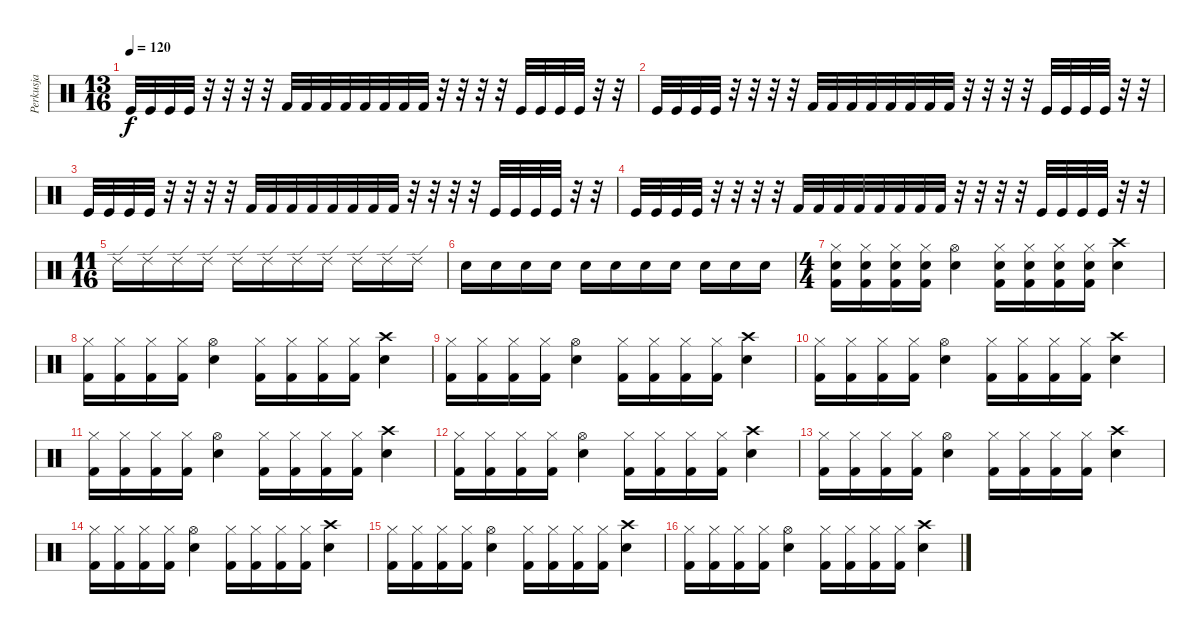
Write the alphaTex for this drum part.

\track ("Perkusja" "Perkusja") {instrument percussion}
\staff {score}
\articulation defaults
\ts (13 16)
\tempo 120
\clef neutral
\ks c "Kick (hit)".32{dy f} "Kick (hit)".32 "Kick (hit)".32 "Kick (hit)".32
r.32 r.32 r.32 r.32 "Kick (hit) 2".32 "Kick (hit) 2".32 "Kick (hit) 2".32 "Kick (hit) 2".32 "Kick (hit) 2".32 "Kick (hit) 2".32 "Kick (hit) 2".32 "Kick (hit) 2".32 r.32 r.32 r.32 r.32 "Kick (hit)".32 "Kick (hit)".32 "Kick (hit)".32 "Kick (hit)".32 r.32 r.32 |
"Kick (hit)".32 "Kick (hit)".32 "Kick (hit)".32 "Kick (hit)".32 r.32 r.32 r.32 r.32 "Kick (hit) 2".32 "Kick (hit) 2".32 "Kick (hit) 2".32 "Kick (hit) 2".32 "Kick (hit) 2".32 "Kick (hit) 2".32 "Kick (hit) 2".32 "Kick (hit) 2".32 r.32 r.32 r.32 r.32 "Kick (hit)".32 "Kick (hit)".32 "Kick (hit)".32 "Kick (hit)".32 r.32 r.32 |
"Kick (hit)".32 "Kick (hit)".32 "Kick (hit)".32 "Kick (hit)".32 r.32 r.32 r.32 r.32 "Kick (hit) 2".32 "Kick (hit) 2".32 "Kick (hit) 2".32 "Kick (hit) 2".32 "Kick (hit) 2".32 "Kick (hit) 2".32 "Kick (hit) 2".32 "Kick (hit) 2".32 r.32 r.32 r.32 r.32 "Kick (hit)".32 "Kick (hit)".32 "Kick (hit)".32 "Kick (hit)".32 r.32 r.32 |
"Kick (hit)".32 "Kick (hit)".32 "Kick (hit)".32 "Kick (hit)".32 r.32 r.32 r.32 r.32 "Kick (hit) 2".32 "Kick (hit) 2".32 "Kick (hit) 2".32 "Kick (hit) 2".32 "Kick (hit) 2".32 "Kick (hit) 2".32 "Kick (hit) 2".32 "Kick (hit) 2".32 r.32 r.32 r.32 r.32 "Kick (hit)".32 "Kick (hit)".32 "Kick (hit)".32 "Kick (hit)".32 r.32 r.32 |
\ts (11 16)
"Ride (edge) 2".16 "Ride (edge) 2".16 "Ride (edge) 2".16 "Ride (edge) 2".16 "Ride (edge) 2".16 "Ride (edge) 2".16 "Ride (edge) 2".16 "Ride (edge) 2".16 "Ride (edge) 2".16 "Ride (edge) 2".16 "Ride (edge) 2".16 |
"Electric Snare (hit)".16 "Electric Snare (hit)".16 "Electric Snare (hit)".16 "Electric Snare (hit)".16 "Electric Snare (hit)".16 "Electric Snare (hit)".16 "Electric Snare (hit)".16 "Electric Snare (hit)".16 "Electric Snare (hit)".16 "Electric Snare (hit)".16 "Electric Snare (hit)".16 |
\ts (4 4)
("Hi-Hat (closed)" "Electric Snare (hit)" "Kick (hit) 2").16 ("Hi-Hat (closed)" "Electric Snare (hit)" "Kick (hit) 2").16 ("Hi-Hat (closed)" "Electric Snare (hit)" "Kick (hit) 2").16 ("Hi-Hat (closed)" "Electric Snare (hit)" "Kick (hit) 2").16 ("Hi-Hat (open)" "Electric Snare (hit)").4 ("Hi-Hat (closed)" "Electric Snare (hit)" "Kick (hit) 2").16 ("Hi-Hat (closed)" "Electric Snare (hit)" "Kick (hit) 2").16 ("Hi-Hat (closed)" "Electric Snare (hit)" "Kick (hit) 2").16 ("Hi-Hat (closed)" "Electric Snare (hit)" "Kick (hit) 2").16 ("Crash high (hit)" "Electric Snare (hit)").4 |
("Hi-Hat (closed)" "Kick (hit) 2").16 ("Hi-Hat (closed)" "Kick (hit) 2").16 ("Hi-Hat (closed)" "Kick (hit) 2").16 ("Hi-Hat (closed)" "Kick (hit) 2").16 ("Hi-Hat (open)" "Electric Snare (hit)").4 ("Hi-Hat (closed)" "Kick (hit) 2").16 ("Hi-Hat (closed)" "Kick (hit) 2").16 ("Hi-Hat (closed)" "Kick (hit) 2").16 ("Hi-Hat (closed)" "Kick (hit) 2").16 ("Crash high (hit)" "Electric Snare (hit)").4 |
("Hi-Hat (closed)" "Kick (hit) 2").16 ("Hi-Hat (closed)" "Kick (hit) 2").16 ("Hi-Hat (closed)" "Kick (hit) 2").16 ("Hi-Hat (closed)" "Kick (hit) 2").16 ("Hi-Hat (open)" "Electric Snare (hit)").4 ("Hi-Hat (closed)" "Kick (hit) 2").16 ("Hi-Hat (closed)" "Kick (hit) 2").16 ("Hi-Hat (closed)" "Kick (hit) 2").16 ("Hi-Hat (closed)" "Kick (hit) 2").16 ("Crash high (hit)" "Electric Snare (hit)").4 |
("Hi-Hat (closed)" "Kick (hit) 2").16 ("Hi-Hat (closed)" "Kick (hit) 2").16 ("Hi-Hat (closed)" "Kick (hit) 2").16 ("Hi-Hat (closed)" "Kick (hit) 2").16 ("Hi-Hat (open)" "Electric Snare (hit)").4 ("Hi-Hat (closed)" "Kick (hit) 2").16 ("Hi-Hat (closed)" "Kick (hit) 2").16 ("Hi-Hat (closed)" "Kick (hit) 2").16 ("Hi-Hat (closed)" "Kick (hit) 2").16 ("Crash high (hit)" "Electric Snare (hit)").4 |
("Hi-Hat (closed)" "Kick (hit) 2").16 ("Hi-Hat (closed)" "Kick (hit) 2").16 ("Hi-Hat (closed)" "Kick (hit) 2").16 ("Hi-Hat (closed)" "Kick (hit) 2").16 ("Hi-Hat (open)" "Electric Snare (hit)").4 ("Hi-Hat (closed)" "Kick (hit) 2").16 ("Hi-Hat (closed)" "Kick (hit) 2").16 ("Hi-Hat (closed)" "Kick (hit) 2").16 ("Hi-Hat (closed)" "Kick (hit) 2").16 ("Crash high (hit)" "Electric Snare (hit)").4 |
("Hi-Hat (closed)" "Kick (hit) 2").16 ("Hi-Hat (closed)" "Kick (hit) 2").16 ("Hi-Hat (closed)" "Kick (hit) 2").16 ("Hi-Hat (closed)" "Kick (hit) 2").16 ("Hi-Hat (open)" "Electric Snare (hit)").4 ("Hi-Hat (closed)" "Kick (hit) 2").16 ("Hi-Hat (closed)" "Kick (hit) 2").16 ("Hi-Hat (closed)" "Kick (hit) 2").16 ("Hi-Hat (closed)" "Kick (hit) 2").16 ("Crash high (hit)" "Electric Snare (hit)").4 |
("Hi-Hat (closed)" "Kick (hit) 2").16 ("Hi-Hat (closed)" "Kick (hit) 2").16 ("Hi-Hat (closed)" "Kick (hit) 2").16 ("Hi-Hat (closed)" "Kick (hit) 2").16 ("Hi-Hat (open)" "Electric Snare (hit)").4 ("Hi-Hat (closed)" "Kick (hit) 2").16 ("Hi-Hat (closed)" "Kick (hit) 2").16 ("Hi-Hat (closed)" "Kick (hit) 2").16 ("Hi-Hat (closed)" "Kick (hit) 2").16 ("Crash high (hit)" "Electric Snare (hit)").4 |
("Hi-Hat (closed)" "Kick (hit) 2").16 ("Hi-Hat (closed)" "Kick (hit) 2").16 ("Hi-Hat (closed)" "Kick (hit) 2").16 ("Hi-Hat (closed)" "Kick (hit) 2").16 ("Hi-Hat (open)" "Electric Snare (hit)").4 ("Hi-Hat (closed)" "Kick (hit) 2").16 ("Hi-Hat (closed)" "Kick (hit) 2").16 ("Hi-Hat (closed)" "Kick (hit) 2").16 ("Hi-Hat (closed)" "Kick (hit) 2").16 ("Crash high (hit)" "Electric Snare (hit)").4 |
("Hi-Hat (closed)" "Kick (hit) 2").16 ("Hi-Hat (closed)" "Kick (hit) 2").16 ("Hi-Hat (closed)" "Kick (hit) 2").16 ("Hi-Hat (closed)" "Kick (hit) 2").16 ("Hi-Hat (open)" "Electric Snare (hit)").4 ("Hi-Hat (closed)" "Kick (hit) 2").16 ("Hi-Hat (closed)" "Kick (hit) 2").16 ("Hi-Hat (closed)" "Kick (hit) 2").16 ("Hi-Hat (closed)" "Kick (hit) 2").16 ("Crash high (hit)" "Electric Snare (hit)").4 |
("Hi-Hat (closed)" "Kick (hit) 2").16 ("Hi-Hat (closed)" "Kick (hit) 2").16 ("Hi-Hat (closed)" "Kick (hit) 2").16 ("Hi-Hat (closed)" "Kick (hit) 2").16 ("Hi-Hat (open)" "Electric Snare (hit)").4 ("Hi-Hat (closed)" "Kick (hit) 2").16 ("Hi-Hat (closed)" "Kick (hit) 2").16 ("Hi-Hat (closed)" "Kick (hit) 2").16 ("Hi-Hat (closed)" "Kick (hit) 2").16 ("Crash high (hit)" "Electric Snare (hit)").4
